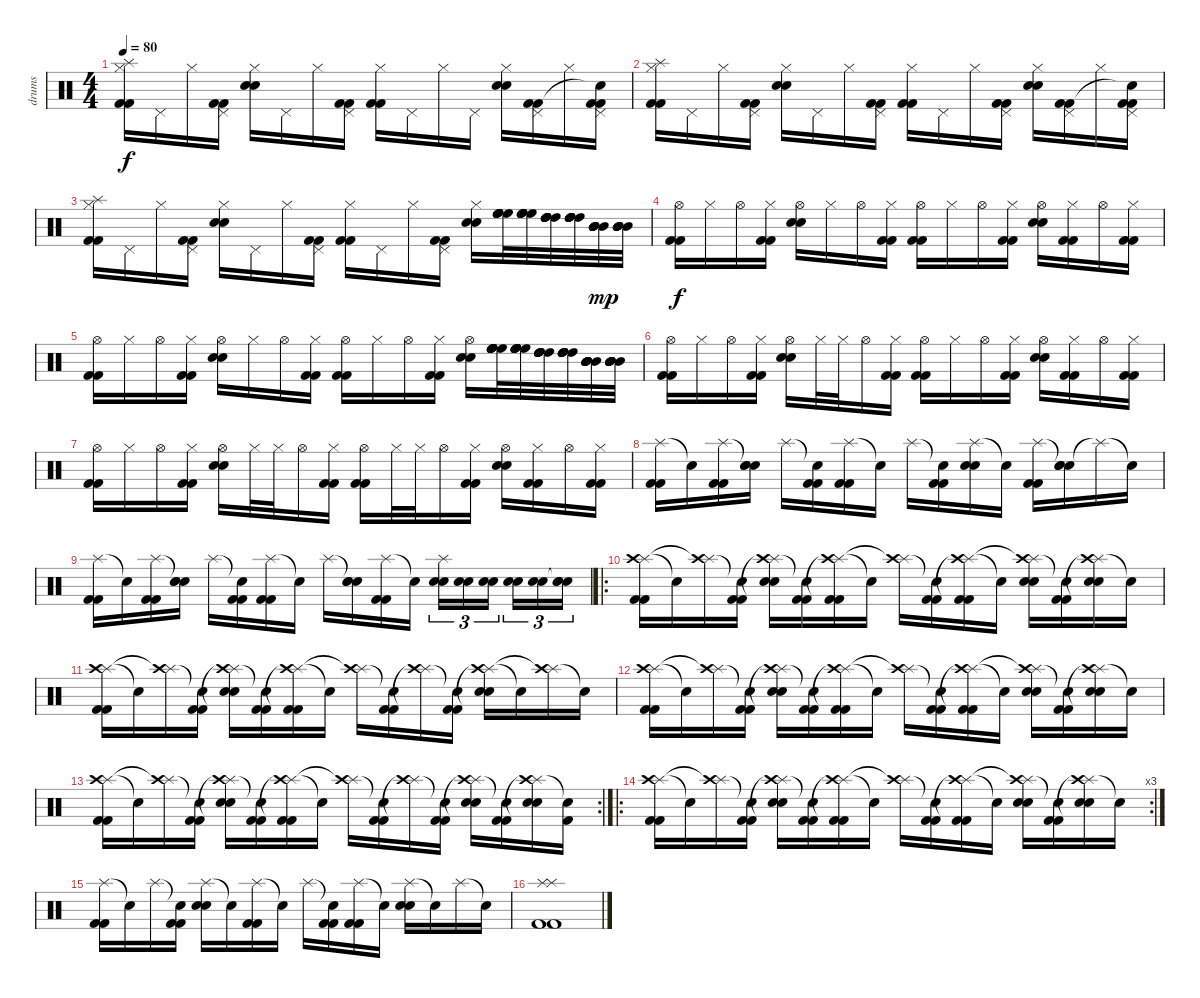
\track ("drums" "drums") {instrument percussion}
\staff {score}
\articulation defaults
\ts (4 4)
\tempo 80
\clef neutral
\ks c
("Hi-Hat (closed)" "Splash (hit)" "Kick (hit) 2" "Kick (hit) 2").16{dy f} "Pedal Hi-Hat (hit)".16 "Hi-Hat (closed)".16 ("Pedal Hi-Hat (hit)" "Kick (hit) 2" "Kick (hit) 2").16 ("Hi-Hat (closed)" "Electric Snare (hit)" "Electric Snare (hit)").16 "Pedal Hi-Hat (hit)".16 "Hi-Hat (closed)".16 ("Pedal Hi-Hat (hit)" "Kick (hit) 2" "Kick (hit) 2").16 ("Hi-Hat (closed)" "Kick (hit) 2" "Kick (hit) 2").16 "Pedal Hi-Hat (hit)".16 "Hi-Hat (closed)".16 "Pedal Hi-Hat (hit)".16 ("Hi-Hat (closed)" "Electric Snare (hit)" "Electric Snare (hit)").16 ("Pedal Hi-Hat (hit)" "Kick (hit) 2" "Kick (hit) 2").16 "Hi-Hat (closed)".16 ("Pedal Hi-Hat (hit)" "Snare (hit)"{t} "Kick (hit) 2" "Kick (hit) 2").16 |
("Hi-Hat (closed)" "Splash (hit)" "Kick (hit) 2" "Kick (hit) 2").16 "Pedal Hi-Hat (hit)".16 "Hi-Hat (closed)".16 ("Pedal Hi-Hat (hit)" "Kick (hit) 2" "Kick (hit) 2").16 ("Hi-Hat (closed)" "Electric Snare (hit)" "Electric Snare (hit)").16 "Pedal Hi-Hat (hit)".16 "Hi-Hat (closed)".16 ("Pedal Hi-Hat (hit)" "Kick (hit) 2" "Kick (hit) 2").16 ("Hi-Hat (closed)" "Kick (hit) 2" "Kick (hit) 2").16 "Pedal Hi-Hat (hit)".16 "Hi-Hat (closed)".16 ("Pedal Hi-Hat (hit)" "Kick (hit) 2" "Kick (hit) 2").16 ("Hi-Hat (closed)" "Electric Snare (hit)" "Electric Snare (hit)").16 ("Pedal Hi-Hat (hit)" "Kick (hit) 2" "Kick (hit) 2").16 "Hi-Hat (closed)".16 ("Pedal Hi-Hat (hit)" "Snare (hit)"{t} "Kick (hit) 2" "Kick (hit) 2").16 |
("Hi-Hat (closed)" "Splash (hit)" "Kick (hit) 2" "Kick (hit) 2").16 "Pedal Hi-Hat (hit)".16 "Hi-Hat (closed)".16 ("Pedal Hi-Hat (hit)" "Kick (hit) 2" "Kick (hit) 2").16 ("Hi-Hat (closed)" "Electric Snare (hit)" "Electric Snare (hit)").16 "Pedal Hi-Hat (hit)".16 "Hi-Hat (closed)".16 ("Pedal Hi-Hat (hit)" "Kick (hit) 2" "Kick (hit) 2").16 ("Hi-Hat (closed)" "Kick (hit) 2" "Kick (hit) 2").16 "Pedal Hi-Hat (hit)".16 "Hi-Hat (closed)".16 ("Pedal Hi-Hat (hit)" "Kick (hit) 2" "Kick (hit) 2").16 ("Hi-Hat (closed)" "Electric Snare (hit)" "Electric Snare (hit)").16 ("High Floor Tom (hit)" "High Floor Tom (hit)" "High Floor Tom (hit)" "High Floor Tom (hit)" "High Floor Tom (hit)").32 ("High Floor Tom (hit)" "High Floor Tom (hit)" "High Floor Tom (hit)" "High Floor Tom (hit)" "High Floor Tom (hit)").32 ("High Tom (hit)" "High Tom (hit)" "High Tom (hit)" "High Tom (hit)" "High Tom (hit)").32 ("High Tom (hit)" "High Tom (hit)" "High Tom (hit)" "High Tom (hit)" "High Tom (hit)").32 ("Mid Tom (hit)" "Mid Tom (hit)" "Mid Tom (hit)" "Mid Tom (hit)" "Mid Tom (hit)").32{dy mp} ("Mid Tom (hit)" "Mid Tom (hit)" "Mid Tom (hit)" "Mid Tom (hit)" "Mid Tom (hit)").32 |
("Hi-Hat (open)" "Kick (hit) 2" "Kick (hit) 2").16{dy f} "Hi-Hat (closed)".16 "Hi-Hat (open)".16 ("Hi-Hat (closed)" "Kick (hit) 2" "Kick (hit) 2").16 ("Hi-Hat (open)" "Electric Snare (hit)" "Electric Snare (hit)").16 "Hi-Hat (closed)".16 "Hi-Hat (open)".16 ("Hi-Hat (closed)" "Kick (hit) 2" "Kick (hit) 2").16 ("Hi-Hat (open)" "Kick (hit) 2" "Kick (hit) 2").16 "Hi-Hat (closed)".16 "Hi-Hat (open)".16 ("Hi-Hat (closed)" "Kick (hit) 2" "Kick (hit) 2").16 ("Hi-Hat (open)" "Electric Snare (hit)" "Electric Snare (hit)").16 ("Hi-Hat (closed)" "Kick (hit) 2" "Kick (hit) 2").16 "Hi-Hat (open)".16 ("Hi-Hat (closed)" "Kick (hit) 2" "Kick (hit) 2").16 |
("Hi-Hat (open)" "Kick (hit) 2" "Kick (hit) 2").16 "Hi-Hat (closed)".16 "Hi-Hat (open)".16 ("Hi-Hat (closed)" "Kick (hit) 2" "Kick (hit) 2").16 ("Hi-Hat (open)" "Electric Snare (hit)" "Electric Snare (hit)").16 "Hi-Hat (closed)".16 "Hi-Hat (open)".16 ("Hi-Hat (closed)" "Kick (hit) 2" "Kick (hit) 2").16 ("Hi-Hat (open)" "Kick (hit) 2" "Kick (hit) 2").16 "Hi-Hat (closed)".16 "Hi-Hat (open)".16 ("Hi-Hat (closed)" "Kick (hit) 2" "Kick (hit) 2").16 ("Hi-Hat (open)" "Electric Snare (hit)" "Electric Snare (hit)").16 ("High Floor Tom (hit)" "High Floor Tom (hit)" "High Floor Tom (hit)" "High Floor Tom (hit)" "High Floor Tom (hit)" "High Floor Tom (hit)").32 ("High Floor Tom (hit)" "High Floor Tom (hit)" "High Floor Tom (hit)" "High Floor Tom (hit)" "High Floor Tom (hit)" "High Floor Tom (hit)").32 ("High Tom (hit)" "High Tom (hit)" "High Tom (hit)" "High Tom (hit)" "High Tom (hit)" "High Tom (hit)").32 ("High Tom (hit)" "High Tom (hit)" "High Tom (hit)" "High Tom (hit)" "High Tom (hit)" "High Tom (hit)").32 ("Mid Tom (hit)" "Mid Tom (hit)" "Mid Tom (hit)" "Mid Tom (hit)" "Mid Tom (hit)" "Mid Tom (hit)").32 ("Mid Tom (hit)" "Mid Tom (hit)" "Mid Tom (hit)" "Mid Tom (hit)" "Mid Tom (hit)" "Mid Tom (hit)").32 |
("Hi-Hat (open)" "Kick (hit) 2" "Kick (hit) 2").16 "Hi-Hat (closed)".16 "Hi-Hat (open)".16 ("Hi-Hat (closed)" "Kick (hit) 2" "Kick (hit) 2").16 ("Hi-Hat (open)" "Electric Snare (hit)" "Electric Snare (hit)").16 "Hi-Hat (closed)".32 "Hi-Hat (closed)".32 "Hi-Hat (open)".16 ("Hi-Hat (closed)" "Kick (hit) 2" "Kick (hit) 2").16 ("Hi-Hat (open)" "Kick (hit) 2" "Kick (hit) 2").16 "Hi-Hat (closed)".16 "Hi-Hat (open)".16 ("Hi-Hat (closed)" "Kick (hit) 2" "Kick (hit) 2").16 ("Hi-Hat (open)" "Electric Snare (hit)" "Electric Snare (hit)").16 ("Hi-Hat (closed)" "Kick (hit) 2" "Kick (hit) 2").16 "Hi-Hat (open)".16 ("Hi-Hat (closed)" "Kick (hit) 2" "Kick (hit) 2").16 |
("Hi-Hat (open)" "Kick (hit) 2" "Kick (hit) 2").16 "Hi-Hat (closed)".16 "Hi-Hat (open)".16 ("Hi-Hat (closed)" "Kick (hit) 2" "Kick (hit) 2").16 ("Hi-Hat (open)" "Electric Snare (hit)" "Electric Snare (hit)").16 "Hi-Hat (closed)".32 "Hi-Hat (closed)".32 "Hi-Hat (open)".16 ("Hi-Hat (closed)" "Kick (hit) 2" "Kick (hit) 2").16 ("Hi-Hat (open)" "Kick (hit) 2" "Kick (hit) 2").16 "Hi-Hat (closed)".32 "Hi-Hat (closed)".32 "Hi-Hat (open)".16 ("Hi-Hat (closed)" "Kick (hit) 2" "Kick (hit) 2").16 ("Hi-Hat (open)" "Electric Snare (hit)" "Electric Snare (hit)").16 ("Hi-Hat (closed)" "Kick (hit) 2" "Kick (hit) 2").16 "Hi-Hat (open)".16 ("Hi-Hat (closed)" "Kick (hit) 2" "Kick (hit) 2").16 |
("Splash (hit)" "Kick (hit) 2" "Kick (hit) 2").16 "Snare (hit)"{t}.16 ("Splash (hit)" "Kick (hit) 2" "Kick (hit) 2").16 ("Snare (hit)"{t} "Electric Snare (hit)" "Electric Snare (hit)").16 "Splash (hit)".16 ("Snare (hit)"{t} "Kick (hit) 2" "Kick (hit) 2").16 ("Splash (hit)" "Kick (hit) 2" "Kick (hit) 2").16 "Snare (hit)"{t}.16 "Splash (hit)".16 ("Snare (hit)"{t} "Kick (hit) 2" "Kick (hit) 2").16 ("Splash (hit)" "Electric Snare (hit)" "Electric Snare (hit)").16 "Snare (hit)"{t}.16 ("Splash (hit)" "Kick (hit) 2" "Kick (hit) 2").16 ("Snare (hit)"{t} "Electric Snare (hit)" "Electric Snare (hit)").16 "Splash (hit)"{t}.16 "Snare (hit)"{t}.16 |
("Splash (hit)" "Kick (hit) 2" "Kick (hit) 2").16 "Snare (hit)"{t}.16 ("Splash (hit)" "Kick (hit) 2" "Kick (hit) 2").16 ("Snare (hit)"{t} "Electric Snare (hit)" "Electric Snare (hit)").16 "Splash (hit)".16 ("Snare (hit)"{t} "Kick (hit) 2" "Kick (hit) 2").16 ("Splash (hit)" "Kick (hit) 2" "Kick (hit) 2").16 "Snare (hit)"{t}.16 "Splash (hit)".16 ("Snare (hit)"{t} "Electric Snare (hit)" "Electric Snare (hit)").16 ("Splash (hit)" "Kick (hit) 2" "Kick (hit) 2").16 "Snare (hit)"{t}.16 ("Splash (hit)" "Electric Snare (hit)" "Electric Snare (hit)").16{tu (3 2)} ("Electric Snare (hit)" "Electric Snare (hit)").16{tu (3 2)} ("Electric Snare (hit)" "Electric Snare (hit)").16{tu (3 2)} ("Electric Snare (hit)" "Electric Snare (hit)").16{tu (3 2)} ("Electric Snare (hit)" "Electric Snare (hit)").16{tu (3 2)} ("Snare (hit)"{t} "Electric Snare (hit)" "Electric Snare (hit)").16{tu (3 2)} |
\ro
("Splash (hit)" "Crash high (hit)" "Kick (hit) 2" "Kick (hit) 2").16 "Snare (hit)"{t}.16 ("Splash (hit)" "Crash high (hit)"{t}).16 ("Snare (hit)"{t} "Kick (hit) 2" "Kick (hit) 2").16 ("Splash (hit)" "Crash high (hit)"{t} "Electric Snare (hit)" "Electric Snare (hit)").16 ("Snare (hit)"{t} "Kick (hit) 2" "Kick (hit) 2").16 ("Splash (hit)" "Crash high (hit)"{t} "Kick (hit) 2" "Kick (hit) 2").16 "Snare (hit)"{t}.16 ("Splash (hit)" "Crash high (hit)"{t}).16 ("Snare (hit)"{t} "Kick (hit) 2" "Kick (hit) 2").16 ("Splash (hit)" "Crash high (hit)"{t} "Kick (hit) 2" "Kick (hit) 2").16 "Snare (hit)"{t}.16 ("Splash (hit)" "Crash high (hit)"{t} "Electric Snare (hit)" "Electric Snare (hit)").16 ("Snare (hit)"{t} "Kick (hit) 2" "Kick (hit) 2").16 ("Splash (hit)" "Crash high (hit)"{t} "Electric Snare (hit)" "Electric Snare (hit)").16 "Snare (hit)"{t}.16 |
("Splash (hit)" "Crash high (hit)" "Kick (hit) 2" "Kick (hit) 2").16 "Snare (hit)"{t}.16 ("Splash (hit)" "Crash high (hit)"{t}).16 ("Snare (hit)"{t} "Kick (hit) 2" "Kick (hit) 2").16 ("Splash (hit)" "Crash high (hit)"{t} "Electric Snare (hit)" "Electric Snare (hit)").16 ("Snare (hit)"{t} "Kick (hit) 2" "Kick (hit) 2").16 ("Splash (hit)" "Crash high (hit)"{t} "Kick (hit) 2" "Kick (hit) 2").16 "Snare (hit)"{t}.16 ("Splash (hit)" "Crash high (hit)"{t}).16 ("Snare (hit)"{t} "Kick (hit) 2" "Kick (hit) 2").16 ("Splash (hit)" "Crash high (hit)"{t}).16 ("Snare (hit)"{t} "Kick (hit) 2" "Kick (hit) 2").16 ("Splash (hit)" "Crash high (hit)"{t} "Electric Snare (hit)" "Electric Snare (hit)").16 "Snare (hit)"{t}.16 ("Splash (hit)" "Crash high (hit)"{t}).16 "Snare (hit)"{t}.16 |
("Splash (hit)" "Crash high (hit)" "Kick (hit) 2" "Kick (hit) 2").16 "Snare (hit)"{t}.16 ("Splash (hit)" "Crash high (hit)"{t}).16 ("Snare (hit)"{t} "Kick (hit) 2" "Kick (hit) 2").16 ("Splash (hit)" "Crash high (hit)"{t} "Electric Snare (hit)" "Electric Snare (hit)").16 ("Snare (hit)"{t} "Kick (hit) 2" "Kick (hit) 2").16 ("Splash (hit)" "Crash high (hit)"{t} "Kick (hit) 2" "Kick (hit) 2").16 "Snare (hit)"{t}.16 ("Splash (hit)" "Crash high (hit)"{t}).16 ("Snare (hit)"{t} "Kick (hit) 2" "Kick (hit) 2").16 ("Splash (hit)" "Crash high (hit)"{t} "Kick (hit) 2" "Kick (hit) 2").16 "Snare (hit)"{t}.16 ("Splash (hit)" "Crash high (hit)"{t} "Electric Snare (hit)" "Electric Snare (hit)").16 ("Snare (hit)"{t} "Kick (hit) 2" "Kick (hit) 2").16 ("Splash (hit)" "Crash high (hit)"{t} "Electric Snare (hit)" "Electric Snare (hit)").16 "Snare (hit)"{t}.16 |
\rc 2
("Splash (hit)" "Crash high (hit)" "Kick (hit) 2" "Kick (hit) 2").16 "Snare (hit)"{t}.16 ("Splash (hit)" "Crash high (hit)"{t}).16 ("Snare (hit)"{t} "Kick (hit) 2" "Kick (hit) 2").16 ("Splash (hit)" "Crash high (hit)"{t} "Electric Snare (hit)" "Electric Snare (hit)").16 ("Snare (hit)"{t} "Kick (hit) 2" "Kick (hit) 2").16 ("Splash (hit)" "Crash high (hit)"{t} "Kick (hit) 2" "Kick (hit) 2").16 "Snare (hit)"{t}.16 ("Splash (hit)" "Crash high (hit)"{t}).16 ("Snare (hit)"{t} "Kick (hit) 2" "Kick (hit) 2").16 ("Splash (hit)" "Crash high (hit)"{t}).16 ("Snare (hit)"{t} "Kick (hit) 2" "Kick (hit) 2").16 ("Splash (hit)" "Crash high (hit)"{t} "Electric Snare (hit)" "Electric Snare (hit)").16 ("Snare (hit)"{t} "Kick (hit) 2" "Kick (hit) 2").16 ("Splash (hit)" "Crash high (hit)"{t} "Electric Snare (hit)" "Electric Snare (hit)").16 ("Snare (hit)"{t} "Kick (hit) 2").16 |
\ro
\rc 3
("Splash (hit)" "Crash high (hit)" "Kick (hit) 2" "Kick (hit) 2").16 "Snare (hit)"{t}.16 ("Splash (hit)" "Crash high (hit)"{t}).16 ("Snare (hit)"{t} "Kick (hit) 2" "Kick (hit) 2").16 ("Splash (hit)" "Crash high (hit)"{t} "Electric Snare (hit)" "Electric Snare (hit)").16 ("Snare (hit)"{t} "Kick (hit) 2" "Kick (hit) 2").16 ("Splash (hit)" "Crash high (hit)"{t} "Kick (hit) 2" "Kick (hit) 2").16 "Snare (hit)"{t}.16 ("Splash (hit)" "Crash high (hit)"{t}).16 ("Snare (hit)"{t} "Kick (hit) 2" "Kick (hit) 2").16 ("Splash (hit)" "Crash high (hit)"{t} "Kick (hit) 2" "Kick (hit) 2").16 "Snare (hit)"{t}.16 ("Splash (hit)" "Crash high (hit)"{t} "Electric Snare (hit)" "Electric Snare (hit)").16 ("Snare (hit)"{t} "Kick (hit) 2" "Kick (hit) 2").16 ("Splash (hit)" "Crash high (hit)"{t} "Electric Snare (hit)" "Electric Snare (hit)").16 "Snare (hit)"{t}.16 |
("Splash (hit)" "Kick (hit) 2" "Kick (hit) 2").16 "Snare (hit)"{t}.16 "Splash (hit)".16 ("Snare (hit)"{t} "Kick (hit) 2" "Kick (hit) 2").16 ("Splash (hit)" "Electric Snare (hit)" "Electric Snare (hit)").16 "Snare (hit)"{t}.16 ("Splash (hit)" "Kick (hit) 2" "Kick (hit) 2").16 "Snare (hit)"{t}.16 "Splash (hit)".16 ("Snare (hit)"{t} "Kick (hit) 2" "Kick (hit) 2").16 ("Splash (hit)" "Kick (hit) 2" "Kick (hit) 2").16 "Snare (hit)"{t}.16 ("Splash (hit)" "Electric Snare (hit)" "Electric Snare (hit)").16 "Snare (hit)"{t}.16 "Splash (hit)".16 "Snare (hit)"{t}.16 |
("Splash (hit)" "Splash (hit)" "Kick (hit) 2" "Kick (hit) 2").1
